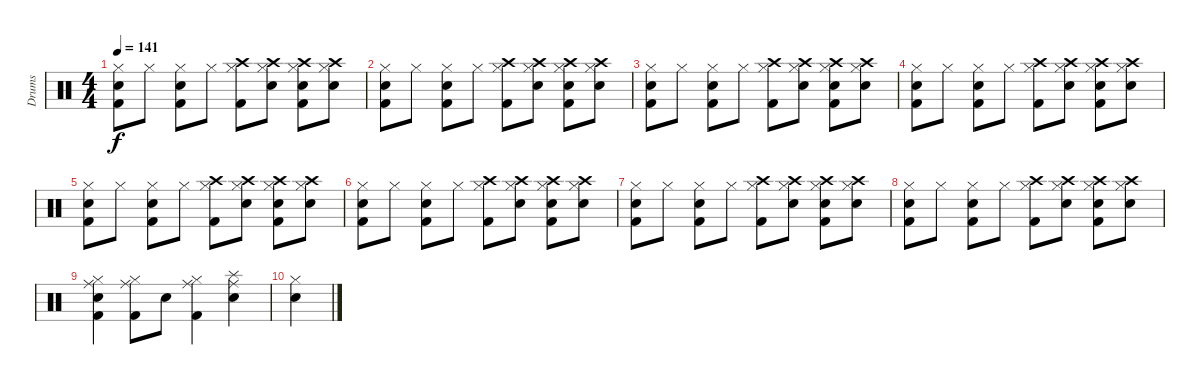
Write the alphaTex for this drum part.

\track ("Drums" "Drums") {instrument percussion}
\staff {score}
\articulation defaults
\ts (4 4)
\tempo 141
\clef neutral
\ks c
("Hi-Hat (closed)" "Electric Snare (hit)" "Kick (hit) 2").8{dy f} "Hi-Hat (closed)".8 ("Hi-Hat (closed)" "Electric Snare (hit)" "Kick (hit) 2").8 "Hi-Hat (closed)".8 ("Hi-Hat (closed)" "Crash high (hit)" "Kick (hit) 2").8 ("Hi-Hat (closed)" "Crash high (hit)" "Electric Snare (hit)").8 ("Hi-Hat (closed)" "Crash high (hit)" "Electric Snare (hit)" "Kick (hit) 2").8 ("Hi-Hat (closed)" "Crash high (hit)" "Electric Snare (hit)").8 |
("Hi-Hat (closed)" "Electric Snare (hit)" "Kick (hit) 2").8 "Hi-Hat (closed)".8 ("Hi-Hat (closed)" "Electric Snare (hit)" "Kick (hit) 2").8 "Hi-Hat (closed)".8 ("Hi-Hat (closed)" "Crash high (hit)" "Kick (hit) 2").8 ("Hi-Hat (closed)" "Crash high (hit)" "Electric Snare (hit)").8 ("Hi-Hat (closed)" "Crash high (hit)" "Electric Snare (hit)" "Kick (hit) 2").8 ("Hi-Hat (closed)" "Crash high (hit)" "Electric Snare (hit)").8 |
("Hi-Hat (closed)" "Electric Snare (hit)" "Kick (hit) 2").8 "Hi-Hat (closed)".8 ("Hi-Hat (closed)" "Electric Snare (hit)" "Kick (hit) 2").8 "Hi-Hat (closed)".8 ("Hi-Hat (closed)" "Crash high (hit)" "Kick (hit) 2").8 ("Hi-Hat (closed)" "Crash high (hit)" "Electric Snare (hit)").8 ("Hi-Hat (closed)" "Crash high (hit)" "Electric Snare (hit)" "Kick (hit) 2").8 ("Hi-Hat (closed)" "Crash high (hit)" "Electric Snare (hit)").8 |
("Hi-Hat (closed)" "Electric Snare (hit)" "Kick (hit) 2").8 "Hi-Hat (closed)".8 ("Hi-Hat (closed)" "Electric Snare (hit)" "Kick (hit) 2").8 "Hi-Hat (closed)".8 ("Hi-Hat (closed)" "Crash high (hit)" "Kick (hit) 2").8 ("Hi-Hat (closed)" "Crash high (hit)" "Electric Snare (hit)").8 ("Hi-Hat (closed)" "Crash high (hit)" "Electric Snare (hit)" "Kick (hit) 2").8 ("Hi-Hat (closed)" "Crash high (hit)" "Electric Snare (hit)").8 |
("Hi-Hat (closed)" "Electric Snare (hit)" "Kick (hit) 2").8 "Hi-Hat (closed)".8 ("Hi-Hat (closed)" "Electric Snare (hit)" "Kick (hit) 2").8 "Hi-Hat (closed)".8 ("Hi-Hat (closed)" "Crash high (hit)" "Kick (hit) 2").8 ("Hi-Hat (closed)" "Crash high (hit)" "Electric Snare (hit)").8 ("Hi-Hat (closed)" "Crash high (hit)" "Electric Snare (hit)" "Kick (hit) 2").8 ("Hi-Hat (closed)" "Crash high (hit)" "Electric Snare (hit)").8 |
("Hi-Hat (closed)" "Electric Snare (hit)" "Kick (hit) 2").8 "Hi-Hat (closed)".8 ("Hi-Hat (closed)" "Electric Snare (hit)" "Kick (hit) 2").8 "Hi-Hat (closed)".8 ("Hi-Hat (closed)" "Crash high (hit)" "Kick (hit) 2").8 ("Hi-Hat (closed)" "Crash high (hit)" "Electric Snare (hit)").8 ("Hi-Hat (closed)" "Crash high (hit)" "Electric Snare (hit)" "Kick (hit) 2").8 ("Hi-Hat (closed)" "Crash high (hit)" "Electric Snare (hit)").8 |
("Hi-Hat (closed)" "Electric Snare (hit)" "Kick (hit) 2").8 "Hi-Hat (closed)".8 ("Hi-Hat (closed)" "Electric Snare (hit)" "Kick (hit) 2").8 "Hi-Hat (closed)".8 ("Hi-Hat (closed)" "Crash high (hit)" "Kick (hit) 2").8 ("Hi-Hat (closed)" "Crash high (hit)" "Electric Snare (hit)").8 ("Hi-Hat (closed)" "Crash high (hit)" "Electric Snare (hit)" "Kick (hit) 2").8 ("Hi-Hat (closed)" "Crash high (hit)" "Electric Snare (hit)").8 |
("Hi-Hat (closed)" "Electric Snare (hit)" "Kick (hit) 2").8 "Hi-Hat (closed)".8 ("Hi-Hat (closed)" "Electric Snare (hit)" "Kick (hit) 2").8 "Hi-Hat (closed)".8 ("Hi-Hat (closed)" "Crash high (hit)" "Kick (hit) 2").8 ("Hi-Hat (closed)" "Crash high (hit)" "Electric Snare (hit)").8 ("Hi-Hat (closed)" "Crash high (hit)" "Electric Snare (hit)" "Kick (hit) 2").8 ("Hi-Hat (closed)" "Crash high (hit)" "Electric Snare (hit)").8 |
("Hi-Hat (closed)" "Ride (middle)" "Electric Snare (hit)" "Kick (hit) 2").4 ("Hi-Hat (closed)" "Ride (middle)" "Kick (hit) 2").8 "Electric Snare (hit)".8 ("Hi-Hat (closed)" "Ride (middle)" "Kick (hit) 2").4 ("Splash (hit)" "Ride (middle)" "Electric Snare (hit)").4 |
("Hi-Hat (closed)" "Electric Snare (hit)").4
